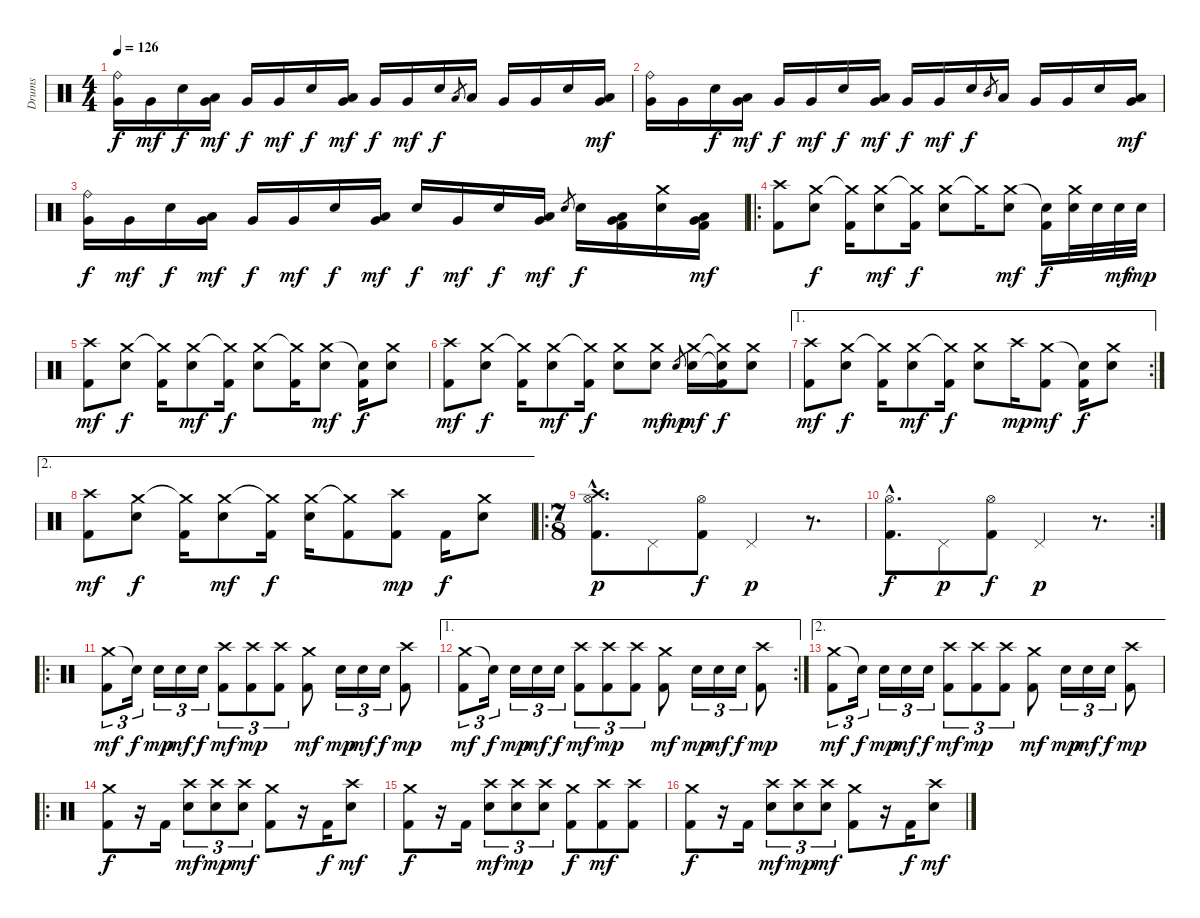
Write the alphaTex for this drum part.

\track ("Drums" "Drums") {instrument percussion}
\staff {score}
\articulation defaults
\ts (4 4)
\tempo 126
\clef neutral
\ks c
("Ride (bell)" "Very Low Tom (hit)").16{dy f} "Very Low Tom (hit)".16{dy mf} "Snare (hit) 2".16{dy f} ("Low Tom (hit)" "Very Low Tom (hit)").16{dy mf} "Very Low Tom (hit)".16{dy f} "Very Low Tom (hit)".16{dy mf} "Snare (hit) 2".16{dy f} ("Low Tom (hit)" "Very Low Tom (hit)").16{dy mf} "Very Low Tom (hit)".16{dy f} "Very Low Tom (hit)".16{dy mf} "Snare (hit) 2".16{dy f} "Low Tom (hit)".8{gr} "Low Tom (hit)".16 "Very Low Tom (hit)".16 "Very Low Tom (hit)".16 "Snare (hit) 2".16 ("Low Tom (hit)" "Very Low Tom (hit)").16{dy mf} |
("Ride (bell)" "Very Low Tom (hit)").16 "Very Low Tom (hit)".16 "Snare (hit) 2".16{dy f} ("Low Tom (hit)" "Very Low Tom (hit)").16{dy mf} "Very Low Tom (hit)".16{dy f} "Very Low Tom (hit)".16{dy mf} "Snare (hit) 2".16{dy f} ("Low Tom (hit)" "Very Low Tom (hit)").16{dy mf} "Very Low Tom (hit)".16{dy f} "Very Low Tom (hit)".16{dy mf} "Snare (hit) 2".16{dy f} "Mid Tom (hit)".8{gr} "Low Tom (hit)".16 "Very Low Tom (hit)".16 "Very Low Tom (hit)".16 "Snare (hit) 2".16 ("Low Tom (hit)" "Very Low Tom (hit)").16{dy mf} |
("Ride (bell)" "Very Low Tom (hit)").16{dy f} "Very Low Tom (hit)".16{dy mf} "Snare (hit) 2".16{dy f} ("Low Tom (hit)" "Very Low Tom (hit)").16{dy mf} "Very Low Tom (hit)".16{dy f} "Very Low Tom (hit)".16{dy mf} "Snare (hit) 2".16{dy f} ("Low Tom (hit)" "Very Low Tom (hit)").16{dy mf} "Snare (hit) 2".16{dy f} "Very Low Tom (hit)".16{dy mf} "Snare (hit) 2".16{dy f} ("Low Tom (hit)" "Very Low Tom (hit)").16{dy mf} "Snare (hit) 2".8{gr} "Snare (hit) 2".16{dy f} ("Low Tom (hit)" "Very Low Tom (hit)" "Kick (hit) 2").16 ("Crash medium (hit)" "Snare (hit) 2").16 ("Low Tom (hit)" "Very Low Tom (hit)" "Kick (hit) 2").16{dy mf} |
\ro
("Crash high (hit)" "Kick (hit) 2").8 ("Crash medium (hit)" "Snare (hit) 2").8{dy f} ("Crash medium (hit)"{t} "Kick (hit) 2").16 ("Crash medium (hit)" "Snare (hit) 2").8{dy mf} ("Crash medium (hit)"{t} "Kick (hit) 2").16{dy f} ("Crash medium (hit)" "Snare (hit) 2").8 "Crash medium (hit)"{t}.16 ("Crash medium (hit)" "Snare (hit) 2").8{dy mf} ("Snare (hit)"{t} "Kick (hit) 2").16{dy f} ("Crash medium (hit)" "Snare (hit) 2").32 "Snare (hit) 2".32 "Snare (hit) 2".32{dy mf} "Snare (hit) 2".32{dy mp} |
("Crash high (hit)" "Kick (hit) 2").8{dy mf} ("Crash medium (hit)" "Snare (hit) 2").8{dy f} ("Crash medium (hit)"{t} "Kick (hit) 2").16 ("Crash medium (hit)" "Snare (hit) 2").8{dy mf} ("Crash medium (hit)"{t} "Kick (hit) 2").16{dy f} ("Crash medium (hit)" "Snare (hit) 2").8 ("Crash medium (hit)"{t} "Kick (hit) 2").16 ("Crash medium (hit)" "Snare (hit) 2").8{dy mf} ("Snare (hit)"{t} "Kick (hit) 2").16{dy f} ("Crash medium (hit)" "Snare (hit) 2").8 |
("Crash high (hit)" "Kick (hit) 2").8{dy mf} ("Crash medium (hit)" "Snare (hit) 2").8{dy f} ("Crash medium (hit)"{t} "Kick (hit) 2").16 ("Crash medium (hit)" "Snare (hit) 2").8{dy mf} ("Crash medium (hit)"{t} "Kick (hit) 2").16{dy f} ("Crash medium (hit)" "Snare (hit) 2").8 ("Crash medium (hit)" "Snare (hit) 2").8{dy mf} "Snare (hit) 2".8{gr dy mp} ("Crash medium (hit)" "Snare (hit) 2").16{dy mf} ("Crash medium (hit)"{t} "Snare (hit) 2"{t} "Kick (hit) 2").16{dy f} ("Crash medium (hit)" "Snare (hit) 2").8 |
\ae 1
\rc 2
("Crash high (hit)" "Kick (hit) 2").8{dy mf} ("Crash medium (hit)" "Snare (hit) 2").8{dy f} ("Crash medium (hit)"{t} "Kick (hit) 2").16 ("Crash medium (hit)" "Snare (hit) 2").8{dy mf} ("Crash medium (hit)"{t} "Kick (hit) 2").16{dy f} ("Crash medium (hit)" "Snare (hit) 2").8 "Crash high (hit)".16{dy mp} ("Crash medium (hit)" "Kick (hit) 2").8{dy mf} ("Snare (hit)"{t} "Kick (hit) 2").16{dy f} ("Crash medium (hit)" "Snare (hit) 2").8 |
\ae 2
("Crash high (hit)" "Kick (hit) 2").8{dy mf} ("Crash medium (hit)" "Snare (hit) 2").8{dy f} ("Crash medium (hit)"{t} "Kick (hit) 2").16 ("Crash medium (hit)" "Snare (hit) 2").8{dy mf} ("Crash medium (hit)"{t} "Kick (hit) 2").16{dy f} ("Crash medium (hit)" "Snare (hit) 2").16 ("Crash medium (hit)"{t} "Kick (hit) 2").8 ("Crash high (hit)" "Kick (hit) 2").8{dy mp} "Kick (hit) 2".16{dy f} ("Crash medium (hit)" "Snare (hit) 2").8 |
\ro
\ts (7 8)
("Hi-Hat (open)"{hac} "Crash high (hit)"{hac} "Kick (hit) 2"{hac}).8{d dy p} "Pedal Hi-Hat (hit)".8 ("Hi-Hat (open)" "Kick (hit) 2").8{dy f} "Pedal Hi-Hat (hit)".4{dy p} r.8{d} |
\rc 2
("Hi-Hat (open)"{hac} "Kick (hit) 2"{hac}).8{d dy f} "Pedal Hi-Hat (hit)".8{dy p} ("Hi-Hat (open)" "Kick (hit) 2").8{dy f} "Pedal Hi-Hat (hit)".4{dy p} r.8{d} |
\ro
("Crash medium (hit)" "Kick (hit) 2").8{tu (3 2) dy mf} "Snare (hit)"{t}.16{tu (3 2) dy f} "Snare (hit) 2".16{tu (3 2) dy mp} "Snare (hit) 2".16{tu (3 2) dy mf} "Snare (hit) 2".16{tu (3 2) dy f} ("Crash high (hit)" "Kick (hit) 2").8{tu (3 2) dy mf} ("Crash high (hit)" "Kick (hit) 2").8{tu (3 2) dy mp} ("Crash high (hit)" "Kick (hit) 2").8{tu (3 2)} ("Crash medium (hit)" "Kick (hit) 2").8{dy mf} "Snare (hit) 2".16{tu (3 2) dy mp} "Snare (hit) 2".16{tu (3 2) dy mf} "Snare (hit) 2".16{tu (3 2) dy f} ("Crash high (hit)" "Kick (hit) 2").8{dy mp} |
\ae 1
\rc 2
("Crash medium (hit)" "Kick (hit) 2").8{tu (3 2) dy mf} "Snare (hit)"{t}.16{tu (3 2) dy f} "Snare (hit) 2".16{tu (3 2) dy mp} "Snare (hit) 2".16{tu (3 2) dy mf} "Snare (hit) 2".16{tu (3 2) dy f} ("Crash high (hit)" "Kick (hit) 2").8{tu (3 2) dy mf} ("Crash high (hit)" "Kick (hit) 2").8{tu (3 2) dy mp} ("Crash high (hit)" "Kick (hit) 2").8{tu (3 2)} ("Crash medium (hit)" "Kick (hit) 2").8{dy mf} "Snare (hit) 2".16{tu (3 2) dy mp} "Snare (hit) 2".16{tu (3 2) dy mf} "Snare (hit) 2".16{tu (3 2) dy f} ("Crash high (hit)" "Kick (hit) 2").8{dy mp} |
\ae 2
("Crash medium (hit)" "Kick (hit) 2").8{tu (3 2) dy mf} "Snare (hit)"{t}.16{tu (3 2) dy f} "Snare (hit) 2".16{tu (3 2) dy mp} "Snare (hit) 2".16{tu (3 2) dy mf} "Snare (hit) 2".16{tu (3 2) dy f} ("Crash high (hit)" "Kick (hit) 2").8{tu (3 2) dy mf} ("Crash high (hit)" "Kick (hit) 2").8{tu (3 2) dy mp} ("Crash high (hit)" "Kick (hit) 2").8{tu (3 2)} ("Crash medium (hit)" "Kick (hit) 2").8{dy mf} "Snare (hit) 2".16{tu (3 2) dy mp} "Snare (hit) 2".16{tu (3 2) dy mf} "Snare (hit) 2".16{tu (3 2) dy f} ("Crash high (hit)" "Kick (hit) 2").8{dy mp} |
\ro
("Crash medium (hit)" "Kick (hit) 2").8{dy f} r.16 "Kick (hit) 2".16 ("Crash high (hit)" "Snare (hit) 2").8{tu (3 2) dy mf} ("Crash high (hit)" "Snare (hit) 2").8{tu (3 2) dy mp} ("Crash high (hit)" "Snare (hit) 2").8{tu (3 2) dy mf} ("Crash medium (hit)" "Kick (hit) 2").8 r.16 "Kick (hit) 2".16{dy f} ("Crash high (hit)" "Snare (hit) 2").8{dy mf} |
("Crash medium (hit)" "Kick (hit) 2").8{dy f} r.16 "Kick (hit) 2".16 ("Crash high (hit)" "Snare (hit) 2").8{tu (3 2) dy mf} ("Crash high (hit)" "Snare (hit) 2").8{tu (3 2) dy mp} ("Crash high (hit)" "Snare (hit) 2").8{tu (3 2)} ("Crash medium (hit)" "Kick (hit) 2").8{dy f} ("Crash high (hit)" "Kick (hit) 2").8{dy mf} ("Crash high (hit)" "Kick (hit) 2").8 |
("Crash medium (hit)" "Kick (hit) 2").8{dy f} r.16 "Kick (hit) 2".16 ("Crash high (hit)" "Snare (hit) 2").8{tu (3 2) dy mf} ("Crash high (hit)" "Snare (hit) 2").8{tu (3 2) dy mp} ("Crash high (hit)" "Snare (hit) 2").8{tu (3 2) dy mf} ("Crash medium (hit)" "Kick (hit) 2").8 r.16 "Kick (hit) 2".16{dy f} ("Crash high (hit)" "Snare (hit) 2").8{dy mf}
